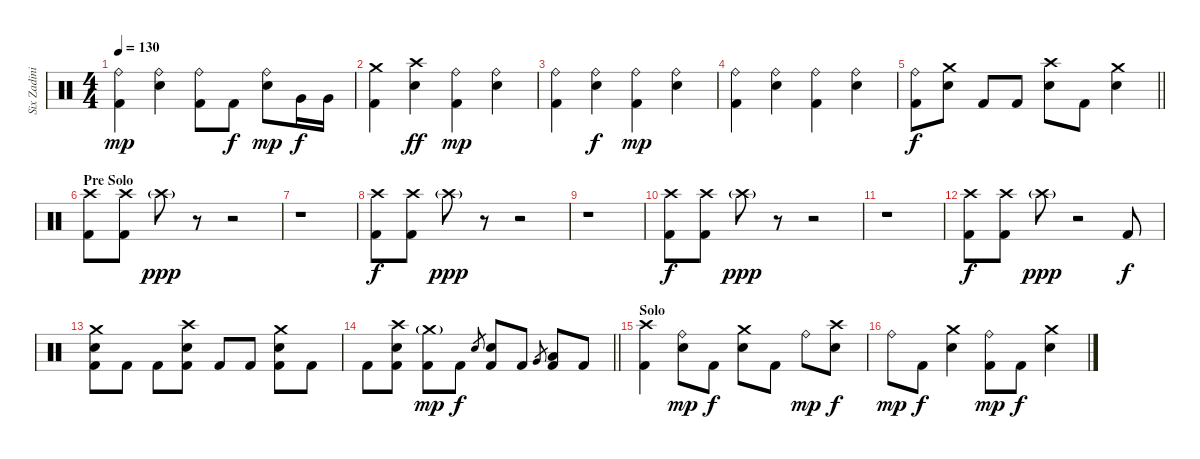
\track ("Six Zadinia" "Six Zadini") {instrument percussion}
\staff {score}
\articulation defaults
\ts (4 4)
\tempo 130
\clef neutral
\ks c
("Ride (bell)" "Kick (hit) 2").4{dy mp} ("Ride (bell)" "Electric Snare (hit)").4 ("Ride (bell)" "Kick (hit) 2").8 "Kick (hit) 2".8{dy f} ("Ride (bell)" "Electric Snare (hit)").8{dy mp} "Very Low Tom (hit)".16{dy f} "Very Low Tom (hit)".16 |
("Crash medium (hit)" "Kick (hit) 2").4 ("Crash high (hit)" "Electric Snare (hit)").4{dy ff} ("Ride (bell)" "Kick (hit) 2").4{dy mp} ("Ride (bell)" "Electric Snare (hit)").4 |
("Ride (bell)" "Kick (hit) 2").4 ("Ride (bell)" "Electric Snare (hit)").4{dy f} ("Ride (bell)" "Kick (hit) 2").4{dy mp} ("Ride (bell)" "Electric Snare (hit)").4 |
("Ride (bell)" "Kick (hit) 2").4 ("Ride (bell)" "Electric Snare (hit)").4 ("Ride (bell)" "Kick (hit) 2").4 ("Ride (bell)" "Electric Snare (hit)").4 |
\barLineRight lightlight
("Ride (bell)" "Kick (hit) 2").8{dy f} ("Crash medium (hit)" "Electric Snare (hit)").8 "Kick (hit) 2".8 "Kick (hit) 2".8 ("Crash high (hit)" "Electric Snare (hit)").8 "Kick (hit) 2".8 ("Crash medium (hit)" "Electric Snare (hit)").4 |
\section ("" "Pre Solo")
("Crash high (hit)" "Kick (hit) 2").8 ("Crash high (hit)" "Kick (hit) 2").8 "Crash high (hit)"{g}.8{dy ppp} r.8 r.2 |
r.1 |
("Crash high (hit)" "Kick (hit) 2").8{dy f} ("Crash high (hit)" "Kick (hit) 2").8 "Crash high (hit)"{g}.8{dy ppp} r.8 r.2 |
r.1 |
("Crash high (hit)" "Kick (hit) 2").8{dy f} ("Crash high (hit)" "Kick (hit) 2").8 "Crash high (hit)"{g}.8{dy ppp} r.8 r.2 |
r.1 |
("Crash high (hit)" "Kick (hit) 2").8{dy f} ("Crash high (hit)" "Kick (hit) 2").8 "Crash high (hit)"{g}.8{dy ppp} r.2 "Kick (hit) 2".8{dy f} |
("Crash medium (hit)" "Electric Snare (hit)" "Kick (hit) 2").8 "Kick (hit) 2".8 "Kick (hit) 2".8 ("Crash high (hit)" "Electric Snare (hit)" "Kick (hit) 2").8 "Kick (hit) 2".8 "Kick (hit) 2".8 ("Crash medium (hit)" "Electric Snare (hit)" "Kick (hit) 2").8 "Kick (hit) 2".8 |
\barLineRight lightlight "Kick (hit) 2".8
("Crash high (hit)" "Electric Snare (hit)" "Kick (hit) 2").8 ("Crash medium (hit)"{g} "Kick (hit) 2").8{dy mp} "Kick (hit) 2".8{dy f} "Electric Snare (hit)".8{gr} ("Electric Snare (hit)" "Kick (hit) 2").8 "Kick (hit) 2".8 "Very Low Tom (hit)".8{gr} ("Low Floor Tom (hit)" "Kick (hit) 2").8 "Kick (hit) 2".8 |
\section ("" "Solo")
("Crash high (hit)" "Kick (hit) 2").4 ("Ride (bell)" "Electric Snare (hit)").8{dy mp} "Kick (hit) 2".8{dy f} ("Crash medium (hit)" "Electric Snare (hit)").8 "Kick (hit) 2".8 "Ride (bell)".8{dy mp} ("Crash high (hit)" "Electric Snare (hit)").8{dy f} |
"Ride (bell)".8{dy mp} "Kick (hit) 2".8{dy f} ("Crash medium (hit)" "Electric Snare (hit)").4 ("Ride (bell)" "Kick (hit) 2").8{dy mp} "Kick (hit) 2".8{dy f} ("Crash medium (hit)" "Electric Snare (hit)").4
